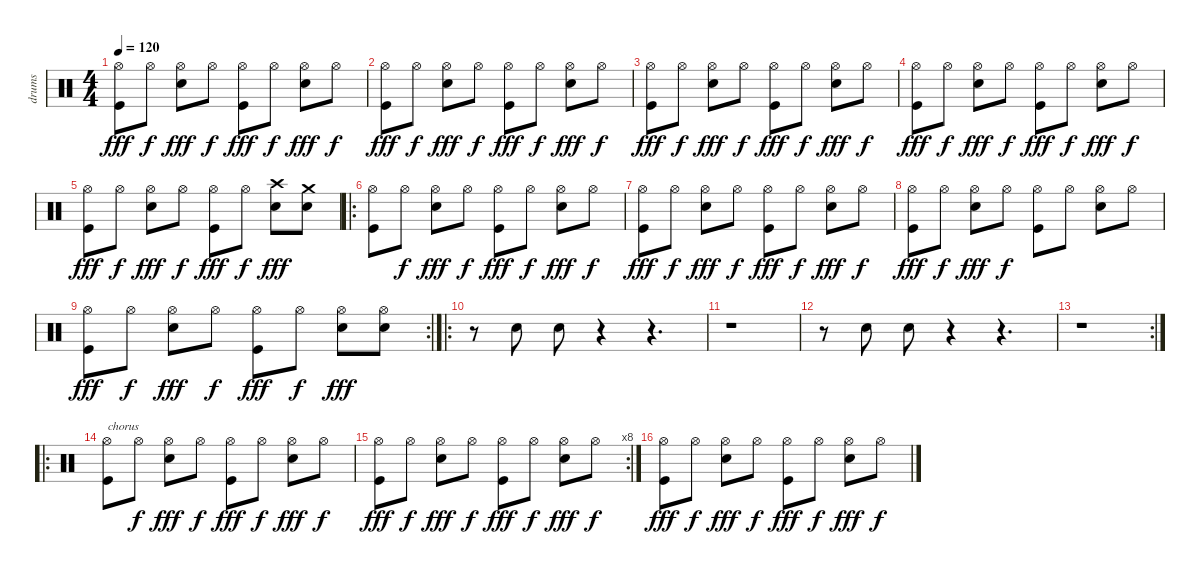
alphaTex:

\track ("drums" "drums") {instrument percussion}
\staff {score}
\articulation defaults
\ts (4 4)
\tempo 120
\clef neutral
\ks c
("Hi-Hat (open)" "Kick (hit)").8{dy fff} "Hi-Hat (open)".8{dy f} ("Hi-Hat (open)" "Snare (hit) 2").8{dy fff} "Hi-Hat (open)".8{dy f} ("Hi-Hat (open)" "Kick (hit)").8{dy fff} "Hi-Hat (open)".8{dy f} ("Hi-Hat (open)" "Snare (hit) 2").8{dy fff} "Hi-Hat (open)".8{dy f} |
("Hi-Hat (open)" "Kick (hit)").8{dy fff} "Hi-Hat (open)".8{dy f} ("Hi-Hat (open)" "Snare (hit) 2").8{dy fff} "Hi-Hat (open)".8{dy f} ("Hi-Hat (open)" "Kick (hit)").8{dy fff} "Hi-Hat (open)".8{dy f} ("Hi-Hat (open)" "Snare (hit) 2").8{dy fff} "Hi-Hat (open)".8{dy f} |
("Hi-Hat (open)" "Kick (hit)").8{dy fff} "Hi-Hat (open)".8{dy f} ("Hi-Hat (open)" "Snare (hit) 2").8{dy fff} "Hi-Hat (open)".8{dy f} ("Hi-Hat (open)" "Kick (hit)").8{dy fff} "Hi-Hat (open)".8{dy f} ("Hi-Hat (open)" "Snare (hit) 2").8{dy fff} "Hi-Hat (open)".8{dy f} |
("Hi-Hat (open)" "Kick (hit)").8{dy fff} "Hi-Hat (open)".8{dy f} ("Hi-Hat (open)" "Snare (hit) 2").8{dy fff} "Hi-Hat (open)".8{dy f} ("Hi-Hat (open)" "Kick (hit)").8{dy fff} "Hi-Hat (open)".8{dy f} ("Hi-Hat (open)" "Snare (hit) 2").8{dy fff} "Hi-Hat (open)".8{dy f} |
("Hi-Hat (open)" "Kick (hit)").8{dy fff} "Hi-Hat (open)".8{dy f} ("Hi-Hat (open)" "Snare (hit) 2").8{dy fff} "Hi-Hat (open)".8{dy f} ("Hi-Hat (open)" "Kick (hit)").8{dy fff} "Hi-Hat (open)".8{dy f} ("Crash high (hit)" "Snare (hit) 2").8{dy fff} ("Crash medium (hit)" "Snare (hit) 2").8 |
\ro
("Hi-Hat (open)" "Kick (hit)").8 "Hi-Hat (open)".8{dy f} ("Hi-Hat (open)" "Snare (hit) 2").8{dy fff} "Hi-Hat (open)".8{dy f} ("Hi-Hat (open)" "Kick (hit)").8{dy fff} "Hi-Hat (open)".8{dy f} ("Hi-Hat (open)" "Snare (hit) 2").8{dy fff} "Hi-Hat (open)".8{dy f} |
("Hi-Hat (open)" "Kick (hit)").8{dy fff} "Hi-Hat (open)".8{dy f} ("Hi-Hat (open)" "Snare (hit) 2").8{dy fff} "Hi-Hat (open)".8{dy f} ("Hi-Hat (open)" "Kick (hit)").8{dy fff} "Hi-Hat (open)".8{dy f} ("Hi-Hat (open)" "Snare (hit) 2").8{dy fff} "Hi-Hat (open)".8{dy f} |
("Hi-Hat (open)" "Kick (hit)").8{dy fff} "Hi-Hat (open)".8{dy f} ("Hi-Hat (open)" "Snare (hit) 2").8{dy fff} "Hi-Hat (open)".8{dy f} ("Hi-Hat (open)" "Kick (hit)").8 "Hi-Hat (open)".8 ("Hi-Hat (open)" "Snare (hit) 2").8 "Hi-Hat (open)".8 |
\rc 2
("Hi-Hat (open)" "Kick (hit)").8{dy fff} "Hi-Hat (open)".8{dy f} ("Hi-Hat (open)" "Snare (hit) 2").8{dy fff} "Hi-Hat (open)".8{dy f} ("Hi-Hat (open)" "Kick (hit)").8{dy fff} "Hi-Hat (open)".8{dy f} ("Hi-Hat (open)" "Snare (hit) 2").8{dy fff} ("Hi-Hat (open)" "Snare (hit) 2").8 |
\ro
r.8 "Snare (hit) 2".8 "Snare (hit) 2".8 r.4 r.4{d} |
r.1 |
r.8 "Snare (hit) 2".8 "Snare (hit) 2".8 r.4 r.4{d} |
\rc 2
r.1 |
\ro
("Hi-Hat (open)" "Kick (hit)").8{txt "chorus"} "Hi-Hat (open)".8{dy f} ("Hi-Hat (open)" "Snare (hit) 2").8{dy fff} "Hi-Hat (open)".8{dy f} ("Hi-Hat (open)" "Kick (hit)").8{dy fff} "Hi-Hat (open)".8{dy f} ("Hi-Hat (open)" "Snare (hit) 2").8{dy fff} "Hi-Hat (open)".8{dy f} |
\rc 8
("Hi-Hat (open)" "Kick (hit)").8{dy fff} "Hi-Hat (open)".8{dy f} ("Hi-Hat (open)" "Snare (hit) 2").8{dy fff} "Hi-Hat (open)".8{dy f} ("Hi-Hat (open)" "Kick (hit)").8{dy fff} "Hi-Hat (open)".8{dy f} ("Hi-Hat (open)" "Snare (hit) 2").8{dy fff} "Hi-Hat (open)".8{dy f} |
("Hi-Hat (open)" "Kick (hit)").8{dy fff} "Hi-Hat (open)".8{dy f} ("Hi-Hat (open)" "Snare (hit) 2").8{dy fff} "Hi-Hat (open)".8{dy f} ("Hi-Hat (open)" "Kick (hit)").8{dy fff} "Hi-Hat (open)".8{dy f} ("Hi-Hat (open)" "Snare (hit) 2").8{dy fff} "Hi-Hat (open)".8{dy f}
